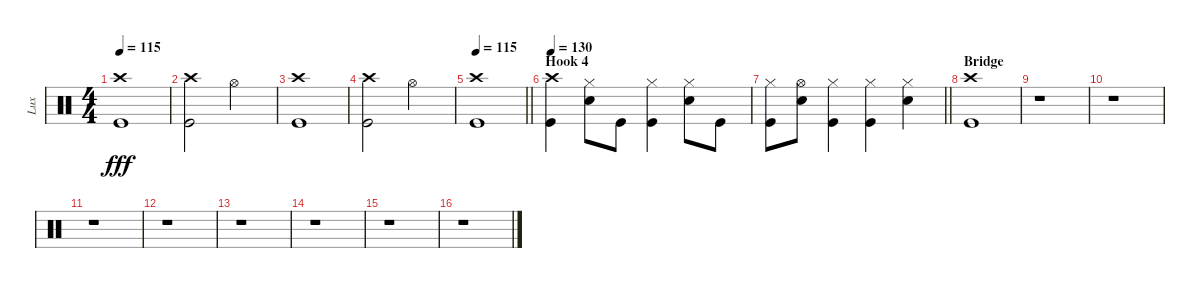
\track ("Lux" "Lux") {instrument percussion}
\staff {score}
\articulation defaults
\ts (4 4)
\tempo 115
\clef neutral
\ks c
("Crash high (hit)" "Kick (hit)").1{dy fff} |
("Crash high (hit)" "Kick (hit)").2 "Hi-Hat (open)".2 |
("Crash high (hit)" "Kick (hit)").1 |
("Crash high (hit)" "Kick (hit)").2 "Hi-Hat (open)".2 |
\tempo 130
\tempo 115
\barLineRight lightlight
("Crash high (hit)" "Kick (hit)").1 |
\section ("" "Hook 4")
\tempo 130
("Crash high (hit)" "Kick (hit)").4 ("Hi-Hat (closed)" "Snare (hit) 2").8 "Kick (hit)".8 ("Hi-Hat (closed)" "Kick (hit)").4 ("Hi-Hat (closed)" "Snare (hit) 2").8 "Kick (hit)".8 |
\barLineRight lightlight
("Hi-Hat (closed)" "Kick (hit)").8 ("Hi-Hat (open)" "Snare (hit) 2").8 ("Hi-Hat (closed)" "Kick (hit)").4 ("Hi-Hat (closed)" "Kick (hit)").4 ("Hi-Hat (closed)" "Snare (hit) 2").4 |
\section ("" "Bridge")
("Crash high (hit)" "Kick (hit)").1 |
r.1 |
r.1 |
r.1 |
r.1 |
r.1 |
r.1 |
r.1 |
r.1
